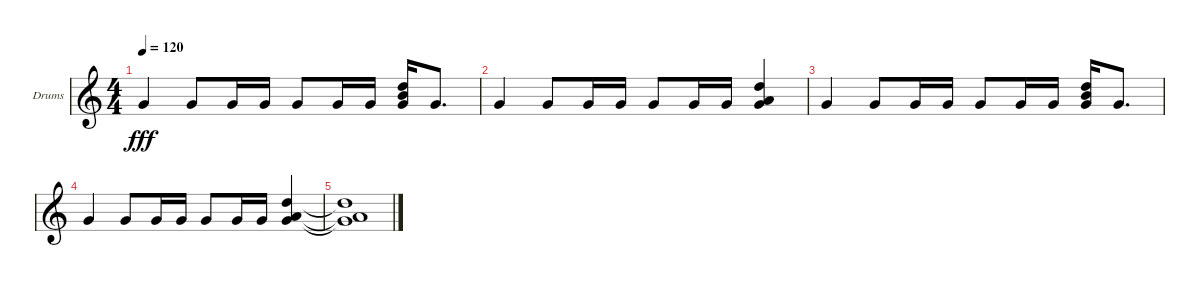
\defaultSystemsLayout 4
\bracketExtendMode groupsimilarinstruments
\firstSystemTrackNameOrientation horizontal
\otherSystemsTrackNameOrientation horizontal
\track ("Drumkit" "Drums") {instrument percussion}
\staff {score}
\articulation defaults
\ts (4 4)
\tempo 120
\clef g2
\scale
0.333333
\ks c "Very Low Tom (hit)".4{dy fff} "Very Low Tom (hit)".8 "Very Low Tom (hit)".16 "Very Low Tom (hit)".16 "Very Low Tom (hit)".8 "Very Low Tom (hit)".16 "Very Low Tom (hit)".16
("Very Low Tom (hit)" "High Tom (hit)" "Mid Tom (hit)").16 "Very Low Tom (hit)".8{d} |
"Very Low Tom (hit)".4 "Very Low Tom (hit)".8 "Very Low Tom (hit)".16 "Very Low Tom (hit)".16 "Very Low Tom (hit)".8 "Very Low Tom (hit)".16 "Very Low Tom (hit)".16 ("Very Low Tom (hit)" "Low Tom (hit)" "High Tom (hit)").4 |
\scale
0.333333 "Very Low Tom (hit)".4 "Very Low Tom (hit)".8 "Very Low Tom (hit)".16 "Very Low Tom (hit)".16 "Very Low Tom (hit)".8 "Very Low Tom (hit)".16 "Very Low Tom (hit)".16 ("Very Low Tom (hit)" "High Tom (hit)" "Mid Tom (hit)").16 "Very Low Tom (hit)".8{d} |
"Very Low Tom (hit)".4 "Very Low Tom (hit)".8 "Very Low Tom (hit)".16 "Very Low Tom (hit)".16 "Very Low Tom (hit)".8 "Very Low Tom (hit)".16 "Very Low Tom (hit)".16 ("Very Low Tom (hit)" "Low Tom (hit)" "High Tom (hit)").4 |
("Very Low Tom (hit)"{t} "Low Tom (hit)"{t} "High Tom (hit)"{t}).1
